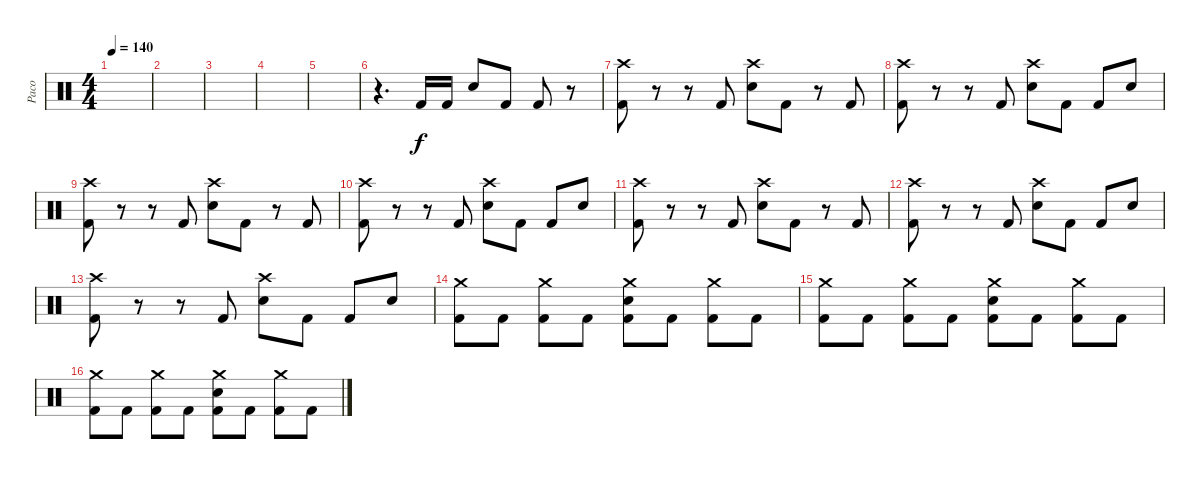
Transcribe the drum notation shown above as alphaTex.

\track ("Paco" "Paco") {instrument percussion}
\staff {score}
\articulation defaults
\ts (4 4)
\tempo 140
\clef neutral
\ks c
|
|
|
|
|
r.4{d volume 12} "Kick (hit) 2".16 "Kick (hit) 2".16 "Electric Snare (hit)".8 "Kick (hit) 2".8 "Kick (hit) 2".8 r.8 |
("Crash high (hit)" "Kick (hit) 2").8 r.8 r.8 "Kick (hit) 2".8 ("Crash high (hit)" "Electric Snare (hit)").8 "Kick (hit) 2".8 r.8 "Kick (hit) 2".8 |
("Crash high (hit)" "Kick (hit) 2").8 r.8 r.8 "Kick (hit) 2".8 ("Crash high (hit)" "Electric Snare (hit)").8 "Kick (hit) 2".8 "Kick (hit) 2".8 "Electric Snare (hit)".8 |
("Crash high (hit)" "Kick (hit) 2").8 r.8 r.8 "Kick (hit) 2".8 ("Crash high (hit)" "Electric Snare (hit)").8 "Kick (hit) 2".8 r.8 "Kick (hit) 2".8 |
("Crash high (hit)" "Kick (hit) 2").8 r.8 r.8 "Kick (hit) 2".8 ("Crash high (hit)" "Electric Snare (hit)").8 "Kick (hit) 2".8 "Kick (hit) 2".8 "Electric Snare (hit)".8 |
("Crash high (hit)" "Kick (hit) 2").8 r.8 r.8 "Kick (hit) 2".8 ("Crash high (hit)" "Electric Snare (hit)").8 "Kick (hit) 2".8 r.8 "Kick (hit) 2".8 |
("Crash high (hit)" "Kick (hit) 2").8 r.8 r.8 "Kick (hit) 2".8 ("Crash high (hit)" "Electric Snare (hit)").8 "Kick (hit) 2".8 "Kick (hit) 2".8 "Electric Snare (hit)".8 |
("Crash high (hit)" "Kick (hit) 2").8 r.8 r.8 "Kick (hit) 2".8 ("Crash high (hit)" "Electric Snare (hit)").8 "Kick (hit) 2".8 "Kick (hit) 2".8 "Electric Snare (hit)".8 |
("Crash medium (hit)" "Kick (hit) 2").8 "Kick (hit) 2".8 ("Crash medium (hit)" "Kick (hit) 2").8 "Kick (hit) 2".8 ("Crash medium (hit)" "Electric Snare (hit)" "Kick (hit) 2").8 "Kick (hit) 2".8 ("Crash medium (hit)" "Kick (hit) 2").8 "Kick (hit) 2".8 |
("Crash medium (hit)" "Kick (hit) 2").8 "Kick (hit) 2".8 ("Crash medium (hit)" "Kick (hit) 2").8 "Kick (hit) 2".8 ("Crash medium (hit)" "Electric Snare (hit)" "Kick (hit) 2").8 "Kick (hit) 2".8 ("Crash medium (hit)" "Kick (hit) 2").8 "Kick (hit) 2".8 |
("Crash medium (hit)" "Kick (hit) 2").8 "Kick (hit) 2".8 ("Crash medium (hit)" "Kick (hit) 2").8 "Kick (hit) 2".8 ("Crash medium (hit)" "Electric Snare (hit)" "Kick (hit) 2").8 "Kick (hit) 2".8 ("Crash medium (hit)" "Kick (hit) 2").8 "Kick (hit) 2".8
